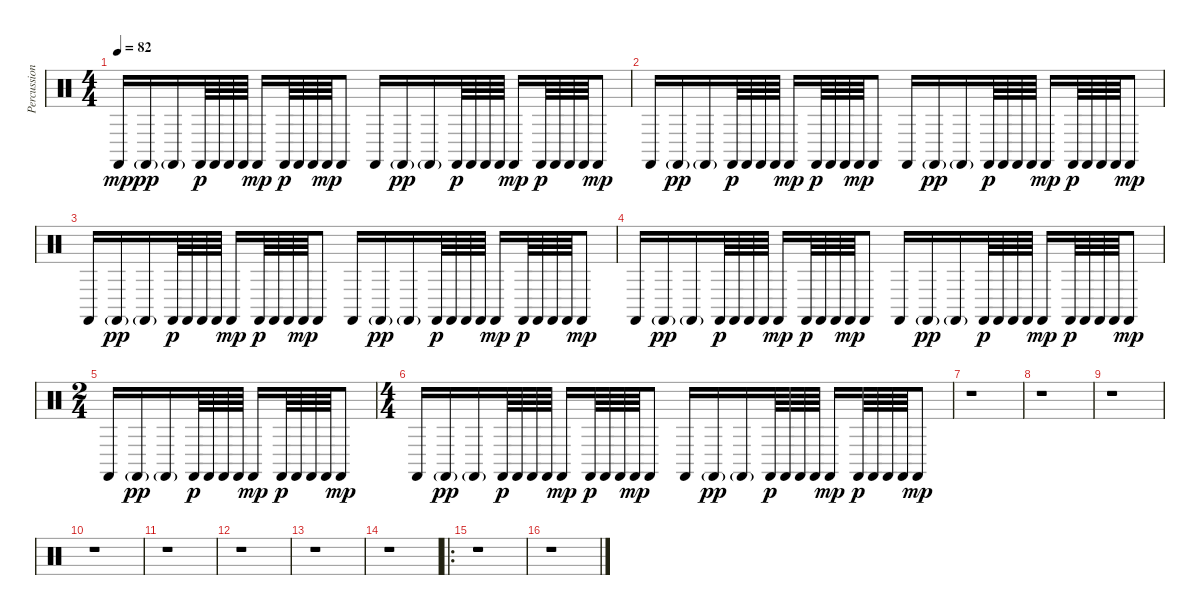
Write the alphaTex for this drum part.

\track ("Percussion" "Percussion") {instrument percussion}
\staff {score}
\articulation defaults
\ts (4 4)
\tempo 82
\clef neutral
\ks c "Castanets (hit)".16{dy mp} "Castanets (hit)"{g}.16{dy pp} "Castanets (hit)"{g}.16 "Castanets (hit)".64{dy p} "Castanets (hit)".64 "Castanets (hit)".64 "Castanets (hit)".64 "Castanets (hit)".16{dy mp} "Castanets (hit)".64{dy p} "Castanets (hit)".64 "Castanets (hit)".64 "Castanets (hit)".64{dy mp} "Castanets (hit)".8 "Castanets (hit)".16 "Castanets (hit)"{g}.16{dy pp} "Castanets (hit)"{g}.16 "Castanets (hit)".64{dy p} "Castanets (hit)".64 "Castanets (hit)".64 "Castanets (hit)".64 "Castanets (hit)".16{dy mp} "Castanets (hit)".64{dy p} "Castanets (hit)".64 "Castanets (hit)".64 "Castanets (hit)".64 "Castanets (hit)".8{dy mp}
|
"Castanets (hit)".16 "Castanets (hit)"{g}.16{dy pp} "Castanets (hit)"{g}.16 "Castanets (hit)".64{dy p} "Castanets (hit)".64 "Castanets (hit)".64 "Castanets (hit)".64 "Castanets (hit)".16{dy mp} "Castanets (hit)".64{dy p} "Castanets (hit)".64 "Castanets (hit)".64 "Castanets (hit)".64{dy mp} "Castanets (hit)".8 "Castanets (hit)".16 "Castanets (hit)"{g}.16{dy pp} "Castanets (hit)"{g}.16 "Castanets (hit)".64{dy p} "Castanets (hit)".64 "Castanets (hit)".64 "Castanets (hit)".64 "Castanets (hit)".16{dy mp} "Castanets (hit)".64{dy p} "Castanets (hit)".64 "Castanets (hit)".64 "Castanets (hit)".64 "Castanets (hit)".8{dy mp} |
"Castanets (hit)".16 "Castanets (hit)"{g}.16{dy pp} "Castanets (hit)"{g}.16 "Castanets (hit)".64{dy p} "Castanets (hit)".64 "Castanets (hit)".64 "Castanets (hit)".64 "Castanets (hit)".16{dy mp} "Castanets (hit)".64{dy p} "Castanets (hit)".64 "Castanets (hit)".64 "Castanets (hit)".64{dy mp} "Castanets (hit)".8 "Castanets (hit)".16 "Castanets (hit)"{g}.16{dy pp} "Castanets (hit)"{g}.16 "Castanets (hit)".64{dy p} "Castanets (hit)".64 "Castanets (hit)".64 "Castanets (hit)".64 "Castanets (hit)".16{dy mp} "Castanets (hit)".64{dy p} "Castanets (hit)".64 "Castanets (hit)".64 "Castanets (hit)".64 "Castanets (hit)".8{dy mp} |
"Castanets (hit)".16 "Castanets (hit)"{g}.16{dy pp} "Castanets (hit)"{g}.16 "Castanets (hit)".64{dy p} "Castanets (hit)".64 "Castanets (hit)".64 "Castanets (hit)".64 "Castanets (hit)".16{dy mp} "Castanets (hit)".64{dy p} "Castanets (hit)".64 "Castanets (hit)".64 "Castanets (hit)".64{dy mp} "Castanets (hit)".8 "Castanets (hit)".16 "Castanets (hit)"{g}.16{dy pp} "Castanets (hit)"{g}.16 "Castanets (hit)".64{dy p} "Castanets (hit)".64 "Castanets (hit)".64 "Castanets (hit)".64 "Castanets (hit)".16{dy mp} "Castanets (hit)".64{dy p} "Castanets (hit)".64 "Castanets (hit)".64 "Castanets (hit)".64 "Castanets (hit)".8{dy mp} |
\ts (2 4)
"Castanets (hit)".16 "Castanets (hit)"{g}.16{dy pp} "Castanets (hit)"{g}.16 "Castanets (hit)".64{dy p} "Castanets (hit)".64 "Castanets (hit)".64 "Castanets (hit)".64 "Castanets (hit)".16{dy mp} "Castanets (hit)".64{dy p} "Castanets (hit)".64 "Castanets (hit)".64 "Castanets (hit)".64 "Castanets (hit)".8{dy mp} |
\ts (4 4)
"Castanets (hit)".16{volume 0} "Castanets (hit)"{g}.16{dy pp} "Castanets (hit)"{g}.16 "Castanets (hit)".64{dy p} "Castanets (hit)".64 "Castanets (hit)".64 "Castanets (hit)".64 "Castanets (hit)".16{dy mp} "Castanets (hit)".64{dy p} "Castanets (hit)".64 "Castanets (hit)".64 "Castanets (hit)".64{dy mp} "Castanets (hit)".8 "Castanets (hit)".16 "Castanets (hit)"{g}.16{dy pp} "Castanets (hit)"{g}.16 "Castanets (hit)".64{dy p} "Castanets (hit)".64 "Castanets (hit)".64 "Castanets (hit)".64 "Castanets (hit)".16{dy mp} "Castanets (hit)".64{dy p} "Castanets (hit)".64 "Castanets (hit)".64 "Castanets (hit)".64 "Castanets (hit)".8{dy mp} |
r.1 |
r.1 |
r.1 |
r.1 |
r.1 |
r.1 |
r.1 |
r.1 |
\ro
r.1 |
r.1
